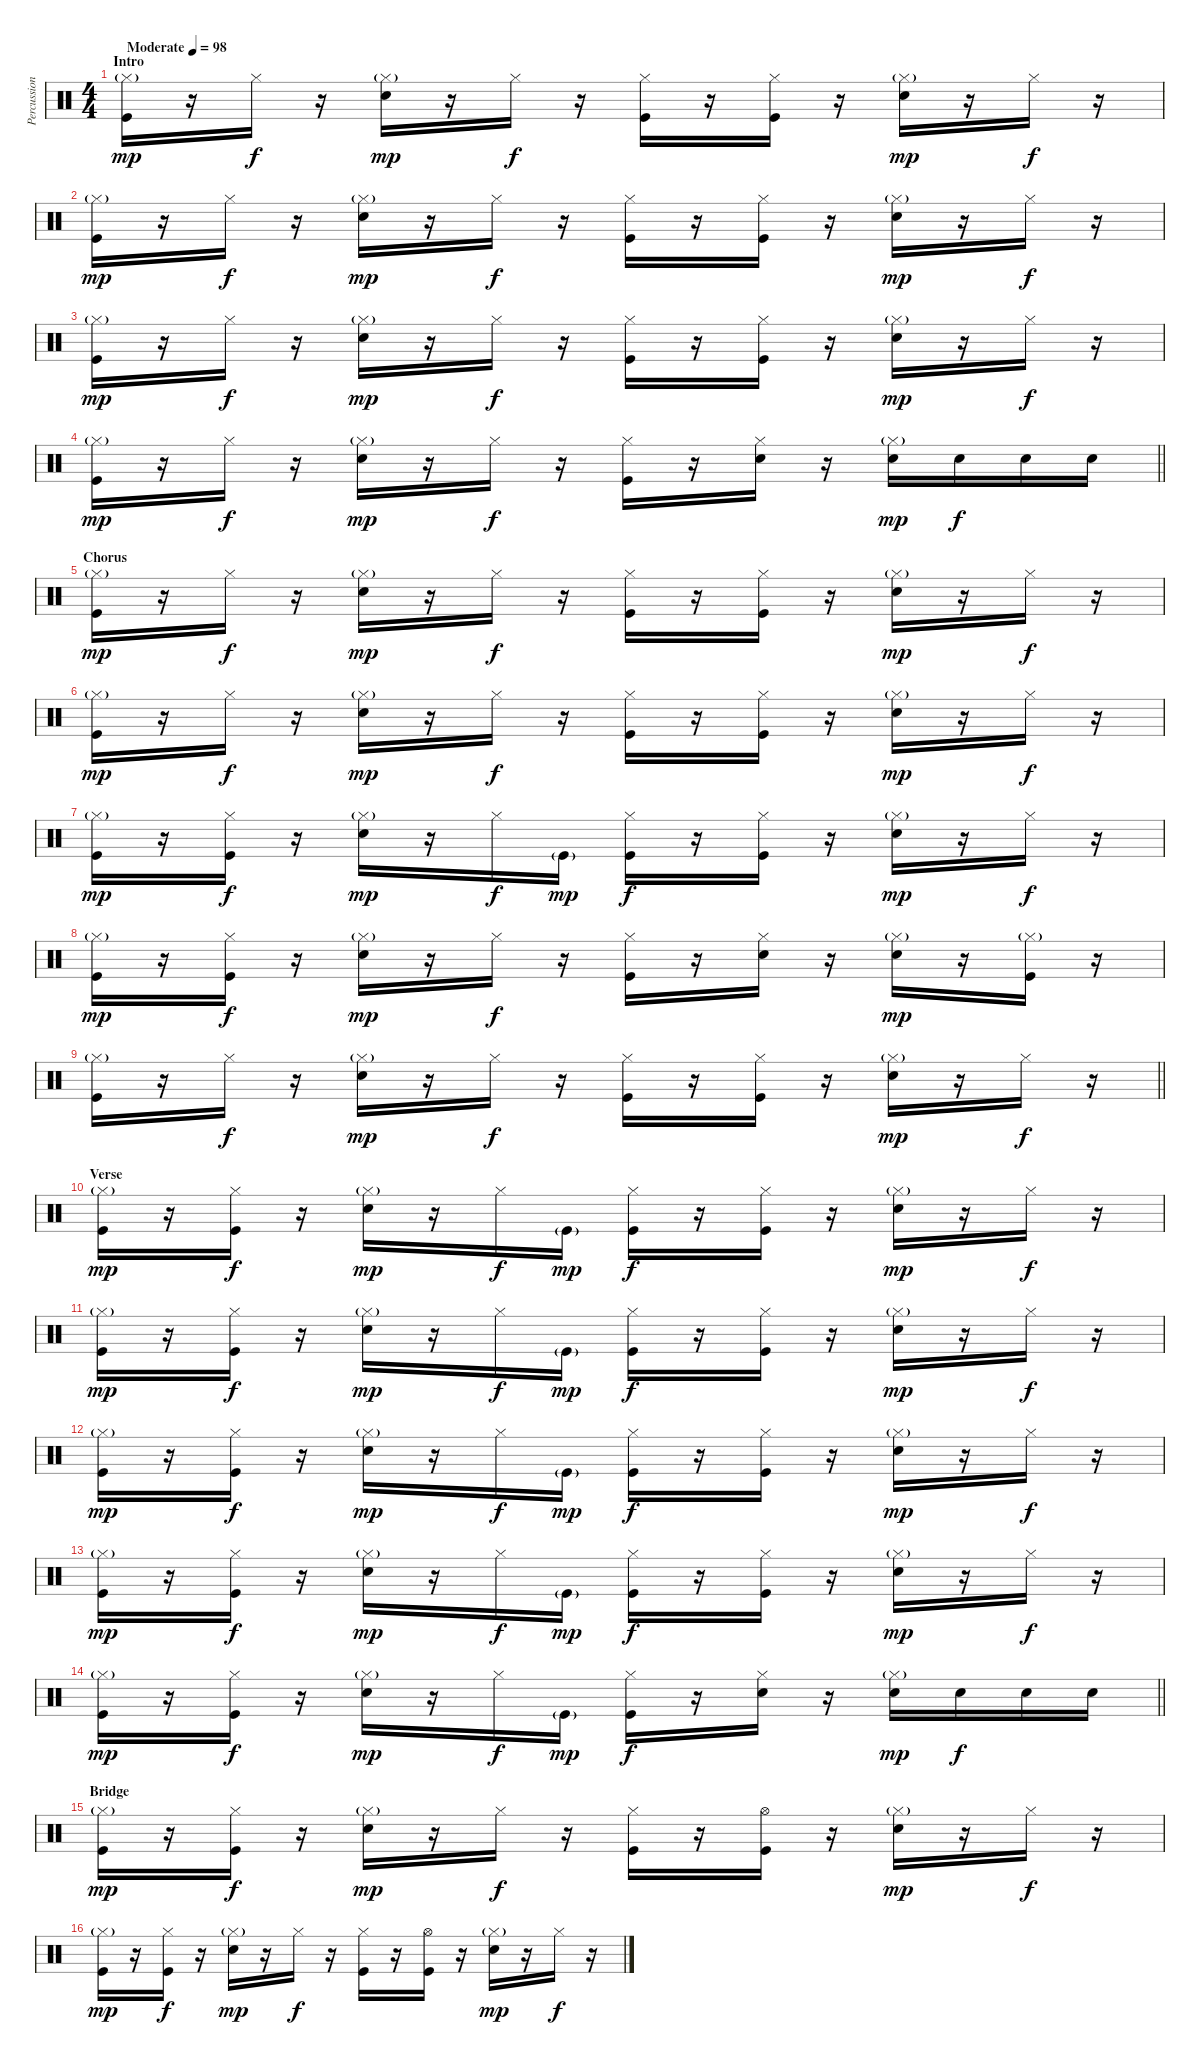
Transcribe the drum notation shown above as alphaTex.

\track ("Percussion" "Percussion") {instrument percussion}
\staff {score}
\articulation defaults
\ts (4 4)
\section ("" "Intro")
\tempo (98 "Moderate")
\clef neutral
\ks c
("Hi-Hat (closed)"{g} "Kick (hit)").16{dy mp} r.16 "Hi-Hat (closed)".16{dy f} r.16 ("Hi-Hat (closed)"{g} "Snare (hit) 2").16{dy mp} r.16 "Hi-Hat (closed)".16{dy f} r.16 ("Hi-Hat (closed)" "Kick (hit)").16 r.16 ("Hi-Hat (closed)" "Kick (hit)").16 r.16 ("Hi-Hat (closed)"{g} "Snare (hit) 2").16{dy mp} r.16 "Hi-Hat (closed)".16{dy f} r.16 |
("Hi-Hat (closed)"{g} "Kick (hit)").16{dy mp} r.16 "Hi-Hat (closed)".16{dy f} r.16 ("Hi-Hat (closed)"{g} "Snare (hit) 2").16{dy mp} r.16 "Hi-Hat (closed)".16{dy f} r.16 ("Hi-Hat (closed)" "Kick (hit)").16 r.16 ("Hi-Hat (closed)" "Kick (hit)").16 r.16 ("Hi-Hat (closed)"{g} "Snare (hit) 2").16{dy mp} r.16 "Hi-Hat (closed)".16{dy f} r.16 |
("Hi-Hat (closed)"{g} "Kick (hit)").16{dy mp} r.16 "Hi-Hat (closed)".16{dy f} r.16 ("Hi-Hat (closed)"{g} "Snare (hit) 2").16{dy mp} r.16 "Hi-Hat (closed)".16{dy f} r.16 ("Hi-Hat (closed)" "Kick (hit)").16 r.16 ("Hi-Hat (closed)" "Kick (hit)").16 r.16 ("Hi-Hat (closed)"{g} "Snare (hit) 2").16{dy mp} r.16 "Hi-Hat (closed)".16{dy f} r.16 |
\barLineRight lightlight
("Hi-Hat (closed)"{g} "Kick (hit)").16{dy mp} r.16 "Hi-Hat (closed)".16{dy f} r.16 ("Hi-Hat (closed)"{g} "Snare (hit) 2").16{dy mp} r.16 "Hi-Hat (closed)".16{dy f} r.16 ("Hi-Hat (closed)" "Kick (hit)").16 r.16 ("Hi-Hat (closed)" "Snare (hit) 2").16 r.16 ("Hi-Hat (closed)"{g} "Snare (hit) 2").16{dy mp} "Snare (hit) 2".16{dy f} "Snare (hit) 2".16 "Snare (hit) 2".16 |
\section ("" "Chorus")
("Hi-Hat (closed)"{g} "Kick (hit)").16{dy mp} r.16 "Hi-Hat (closed)".16{dy f} r.16 ("Hi-Hat (closed)"{g} "Snare (hit) 2").16{dy mp} r.16 "Hi-Hat (closed)".16{dy f} r.16 ("Hi-Hat (closed)" "Kick (hit)").16 r.16 ("Hi-Hat (closed)" "Kick (hit)").16 r.16 ("Hi-Hat (closed)"{g} "Snare (hit) 2").16{dy mp} r.16 "Hi-Hat (closed)".16{dy f} r.16 |
("Hi-Hat (closed)"{g} "Kick (hit)").16{dy mp} r.16 "Hi-Hat (closed)".16{dy f} r.16 ("Hi-Hat (closed)"{g} "Snare (hit) 2").16{dy mp} r.16 "Hi-Hat (closed)".16{dy f} r.16 ("Hi-Hat (closed)" "Kick (hit)").16 r.16 ("Hi-Hat (closed)" "Kick (hit)").16 r.16 ("Hi-Hat (closed)"{g} "Snare (hit) 2").16{dy mp} r.16 "Hi-Hat (closed)".16{dy f} r.16 |
("Hi-Hat (closed)"{g} "Kick (hit)").16{dy mp} r.16 ("Hi-Hat (closed)" "Kick (hit)").16{dy f} r.16 ("Hi-Hat (closed)"{g} "Snare (hit) 2").16{dy mp} r.16 "Hi-Hat (closed)".16{dy f} "Kick (hit)"{g}.16{dy mp} ("Hi-Hat (closed)" "Kick (hit)").16{dy f} r.16 ("Hi-Hat (closed)" "Kick (hit)").16 r.16 ("Hi-Hat (closed)"{g} "Snare (hit) 2").16{dy mp} r.16 "Hi-Hat (closed)".16{dy f} r.16 |
("Hi-Hat (closed)"{g} "Kick (hit)").16{dy mp} r.16 ("Hi-Hat (closed)" "Kick (hit)").16{dy f} r.16 ("Hi-Hat (closed)"{g} "Snare (hit) 2").16{dy mp} r.16 "Hi-Hat (closed)".16{dy f} r.16 ("Hi-Hat (closed)" "Kick (hit)").16 r.16 ("Hi-Hat (closed)" "Snare (hit) 2").16 r.16 ("Hi-Hat (closed)"{g} "Snare (hit) 2").16{dy mp} r.16 ("Hi-Hat (closed)"{g} "Kick (hit)").16 r.16 |
\barLineRight lightlight
("Hi-Hat (closed)"{g} "Kick (hit)").16 r.16 "Hi-Hat (closed)".16{dy f} r.16 ("Hi-Hat (closed)"{g} "Snare (hit) 2").16{dy mp} r.16 "Hi-Hat (closed)".16{dy f} r.16 ("Hi-Hat (closed)" "Kick (hit)").16 r.16 ("Hi-Hat (closed)" "Kick (hit)").16 r.16 ("Hi-Hat (closed)"{g} "Snare (hit) 2").16{dy mp} r.16 "Hi-Hat (closed)".16{dy f} r.16 |
\section ("" "Verse")
("Hi-Hat (closed)"{g} "Kick (hit)").16{dy mp} r.16 ("Hi-Hat (closed)" "Kick (hit)").16{dy f} r.16 ("Hi-Hat (closed)"{g} "Snare (hit) 2").16{dy mp} r.16 "Hi-Hat (closed)".16{dy f} "Kick (hit)"{g}.16{dy mp} ("Hi-Hat (closed)" "Kick (hit)").16{dy f} r.16 ("Hi-Hat (closed)" "Kick (hit)").16 r.16 ("Hi-Hat (closed)"{g} "Snare (hit) 2").16{dy mp} r.16 "Hi-Hat (closed)".16{dy f} r.16 |
("Hi-Hat (closed)"{g} "Kick (hit)").16{dy mp} r.16 ("Hi-Hat (closed)" "Kick (hit)").16{dy f} r.16 ("Hi-Hat (closed)"{g} "Snare (hit) 2").16{dy mp} r.16 "Hi-Hat (closed)".16{dy f} "Kick (hit)"{g}.16{dy mp} ("Hi-Hat (closed)" "Kick (hit)").16{dy f} r.16 ("Hi-Hat (closed)" "Kick (hit)").16 r.16 ("Hi-Hat (closed)"{g} "Snare (hit) 2").16{dy mp} r.16 "Hi-Hat (closed)".16{dy f} r.16 |
("Hi-Hat (closed)"{g} "Kick (hit)").16{dy mp} r.16 ("Hi-Hat (closed)" "Kick (hit)").16{dy f} r.16 ("Hi-Hat (closed)"{g} "Snare (hit) 2").16{dy mp} r.16 "Hi-Hat (closed)".16{dy f} "Kick (hit)"{g}.16{dy mp} ("Hi-Hat (closed)" "Kick (hit)").16{dy f} r.16 ("Hi-Hat (closed)" "Kick (hit)").16 r.16 ("Hi-Hat (closed)"{g} "Snare (hit) 2").16{dy mp} r.16 "Hi-Hat (closed)".16{dy f} r.16 |
("Hi-Hat (closed)"{g} "Kick (hit)").16{dy mp} r.16 ("Hi-Hat (closed)" "Kick (hit)").16{dy f} r.16 ("Hi-Hat (closed)"{g} "Snare (hit) 2").16{dy mp} r.16 "Hi-Hat (closed)".16{dy f} "Kick (hit)"{g}.16{dy mp} ("Hi-Hat (closed)" "Kick (hit)").16{dy f} r.16 ("Hi-Hat (closed)" "Kick (hit)").16 r.16 ("Hi-Hat (closed)"{g} "Snare (hit) 2").16{dy mp} r.16 "Hi-Hat (closed)".16{dy f} r.16 |
\barLineRight lightlight
("Hi-Hat (closed)"{g} "Kick (hit)").16{dy mp} r.16 ("Hi-Hat (closed)" "Kick (hit)").16{dy f} r.16 ("Hi-Hat (closed)"{g} "Snare (hit) 2").16{dy mp} r.16 "Hi-Hat (closed)".16{dy f} "Kick (hit)"{g}.16{dy mp} ("Hi-Hat (closed)" "Kick (hit)").16{dy f} r.16 ("Hi-Hat (closed)" "Snare (hit) 2").16 r.16 ("Hi-Hat (closed)"{g} "Snare (hit) 2").16{dy mp} "Snare (hit) 2".16{dy f} "Snare (hit) 2".16 "Snare (hit) 2".16 |
\section ("" "Bridge")
("Hi-Hat (closed)"{g} "Kick (hit)").16{dy mp} r.16 ("Hi-Hat (closed)" "Kick (hit)").16{dy f} r.16 ("Hi-Hat (closed)"{g} "Snare (hit) 2").16{dy mp} r.16 "Hi-Hat (closed)".16{dy f} r.16 ("Hi-Hat (closed)" "Kick (hit)").16 r.16 ("Hi-Hat (open)" "Kick (hit)").16 r.16 ("Hi-Hat (closed)"{g} "Snare (hit) 2").16{dy mp} r.16 "Hi-Hat (closed)".16{dy f} r.16 |
("Hi-Hat (closed)"{g} "Kick (hit)").16{dy mp} r.16 ("Hi-Hat (closed)" "Kick (hit)").16{dy f} r.16 ("Hi-Hat (closed)"{g} "Snare (hit) 2").16{dy mp} r.16 "Hi-Hat (closed)".16{dy f} r.16 ("Hi-Hat (closed)" "Kick (hit)").16 r.16 ("Hi-Hat (open)" "Kick (hit)").16 r.16 ("Hi-Hat (closed)"{g} "Snare (hit) 2").16{dy mp} r.16 "Hi-Hat (closed)".16{dy f} r.16
